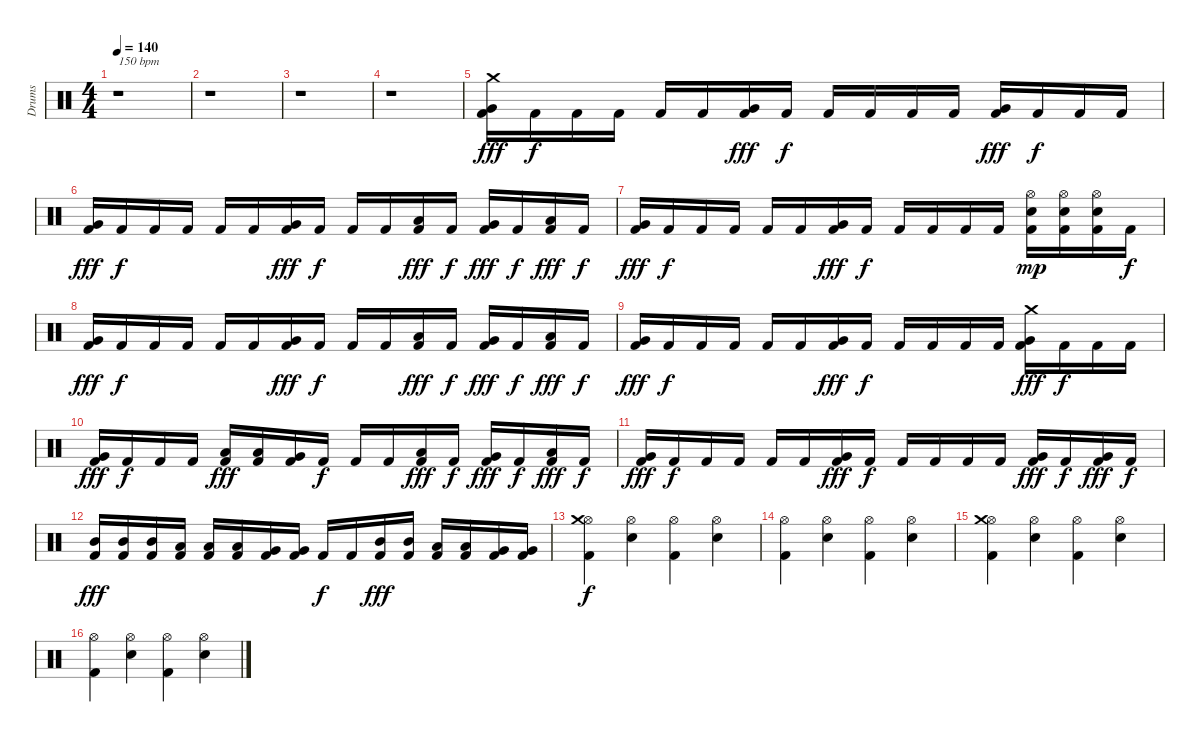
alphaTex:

\track ("Drums" "Drums") {instrument percussion}
\staff {score}
\articulation defaults
\ts (4 4)
\tempo 140
\tempo 150
\tempo 140
\clef neutral
\ks c
r.1{txt "150 bpm" dy fff} |
r.1 |
r.1 |
r.1 |
("Kick (hit) 2" "Very Low Tom (hit)" "Crash medium (hit)").16 "Kick (hit) 2".16{dy f} "Kick (hit) 2".16 "Kick (hit) 2".16 "Kick (hit) 2".16 "Kick (hit) 2".16 ("Kick (hit) 2" "Very Low Tom (hit)").16{dy fff} "Kick (hit) 2".16{dy f} "Kick (hit) 2".16 "Kick (hit) 2".16 "Kick (hit) 2".16 "Kick (hit) 2".16 ("Kick (hit) 2" "Very Low Tom (hit)").16{dy fff} "Kick (hit) 2".16{dy f} "Kick (hit) 2".16 "Kick (hit) 2".16 |
("Kick (hit) 2" "Very Low Tom (hit)").16{dy fff} "Kick (hit) 2".16{dy f} "Kick (hit) 2".16 "Kick (hit) 2".16 "Kick (hit) 2".16 "Kick (hit) 2".16 ("Kick (hit) 2" "Very Low Tom (hit)").16{dy fff} "Kick (hit) 2".16{dy f} "Kick (hit) 2".16 "Kick (hit) 2".16 ("Kick (hit) 2" "Low Tom (hit)").16{dy fff} "Kick (hit) 2".16{dy f} ("Kick (hit) 2" "Very Low Tom (hit)").16{dy fff} "Kick (hit) 2".16{dy f} ("Kick (hit) 2" "Low Floor Tom (hit)").16{dy fff} "Kick (hit) 2".16{dy f} |
("Kick (hit) 2" "Very Low Tom (hit)").16{dy fff} "Kick (hit) 2".16{dy f} "Kick (hit) 2".16 "Kick (hit) 2".16 "Kick (hit) 2".16 "Kick (hit) 2".16 ("Kick (hit) 2" "Very Low Tom (hit)").16{dy fff} "Kick (hit) 2".16{dy f} "Kick (hit) 2".16 "Kick (hit) 2".16 "Kick (hit) 2".16 "Kick (hit) 2".16 ("Kick (hit) 2" "Snare (hit) 2" "Hi-Hat (open)").16{dy mp} ("Kick (hit) 2" "Snare (hit) 2" "Hi-Hat (open)").16 ("Kick (hit) 2" "Snare (hit) 2" "Hi-Hat (open)").16 "Kick (hit) 2".16{dy f} |
("Kick (hit) 2" "Very Low Tom (hit)").16{dy fff} "Kick (hit) 2".16{dy f} "Kick (hit) 2".16 "Kick (hit) 2".16 "Kick (hit) 2".16 "Kick (hit) 2".16 ("Kick (hit) 2" "Very Low Tom (hit)").16{dy fff} "Kick (hit) 2".16{dy f} "Kick (hit) 2".16 "Kick (hit) 2".16 ("Kick (hit) 2" "Low Tom (hit)").16{dy fff} "Kick (hit) 2".16{dy f} ("Kick (hit) 2" "Very Low Tom (hit)").16{dy fff} "Kick (hit) 2".16{dy f} ("Kick (hit) 2" "Low Floor Tom (hit)").16{dy fff} "Kick (hit) 2".16{dy f} |
("Kick (hit) 2" "Very Low Tom (hit)").16{dy fff} "Kick (hit) 2".16{dy f} "Kick (hit) 2".16 "Kick (hit) 2".16 "Kick (hit) 2".16 "Kick (hit) 2".16 ("Kick (hit) 2" "Very Low Tom (hit)").16{dy fff} "Kick (hit) 2".16{dy f} "Kick (hit) 2".16 "Kick (hit) 2".16 "Kick (hit) 2".16 "Kick (hit) 2".16 ("Kick (hit) 2" "Very Low Tom (hit)" "Crash medium (hit)").16{dy fff} "Kick (hit) 2".16{dy f} "Kick (hit) 2".16 "Kick (hit) 2".16 |
("Kick (hit) 2" "Very Low Tom (hit)").16{dy fff} "Kick (hit) 2".16{dy f} "Kick (hit) 2".16 "Kick (hit) 2".16 ("Kick (hit) 2" "Low Tom (hit)").16{dy fff} ("Kick (hit) 2" "Low Tom (hit)").16 ("Kick (hit) 2" "Very Low Tom (hit)").16 "Kick (hit) 2".16{dy f} "Kick (hit) 2".16 "Kick (hit) 2".16 ("Kick (hit) 2" "Low Tom (hit)").16{dy fff} "Kick (hit) 2".16{dy f} ("Kick (hit) 2" "Very Low Tom (hit)").16{dy fff} "Kick (hit) 2".16{dy f} ("Kick (hit) 2" "Low Floor Tom (hit)").16{dy fff} "Kick (hit) 2".16{dy f} |
("Kick (hit) 2" "Very Low Tom (hit)").16{dy fff} "Kick (hit) 2".16{dy f} "Kick (hit) 2".16 "Kick (hit) 2".16 "Kick (hit) 2".16 "Kick (hit) 2".16 ("Kick (hit) 2" "Very Low Tom (hit)").16{dy fff} "Kick (hit) 2".16{dy f} "Kick (hit) 2".16 "Kick (hit) 2".16 "Kick (hit) 2".16 "Kick (hit) 2".16 ("Kick (hit) 2" "Very Low Tom (hit)").16{dy fff} "Kick (hit) 2".16{dy f} ("Kick (hit) 2" "Very Low Tom (hit)").16{dy fff} "Kick (hit) 2".16{dy f} |
("Kick (hit) 2" "Mid Tom (hit)").16{dy fff} ("Kick (hit) 2" "Mid Tom (hit)").16 ("Kick (hit) 2" "Mid Tom (hit)").16 ("Kick (hit) 2" "Low Tom (hit)").16 ("Kick (hit) 2" "Low Tom (hit)").16 ("Kick (hit) 2" "Low Tom (hit)").16 ("Kick (hit) 2" "Very Low Tom (hit)").16 ("Kick (hit) 2" "Very Low Tom (hit)").16 "Kick (hit) 2".16{dy f} "Kick (hit) 2".16 ("Kick (hit) 2" "Mid Tom (hit)").16{dy fff} ("Kick (hit) 2" "Mid Tom (hit)").16 ("Kick (hit) 2" "Low Tom (hit)").16 ("Kick (hit) 2" "Low Tom (hit)").16 ("Kick (hit) 2" "Very Low Tom (hit)").16 ("Kick (hit) 2" "Very Low Tom (hit)").16 |
("Kick (hit) 2" "Hi-Hat (open)" "Crash medium (hit)").4{dy f} ("Snare (hit) 2" "Hi-Hat (open)").4 ("Kick (hit) 2" "Hi-Hat (open)").4 ("Snare (hit) 2" "Hi-Hat (open)").4 |
("Kick (hit) 2" "Hi-Hat (open)").4 ("Snare (hit) 2" "Hi-Hat (open)").4 ("Kick (hit) 2" "Hi-Hat (open)").4 ("Snare (hit) 2" "Hi-Hat (open)").4 |
("Kick (hit) 2" "Hi-Hat (open)" "Crash medium (hit)").4 ("Snare (hit) 2" "Hi-Hat (open)").4 ("Kick (hit) 2" "Hi-Hat (open)").4 ("Snare (hit) 2" "Hi-Hat (open)").4 |
("Kick (hit) 2" "Hi-Hat (open)").4 ("Snare (hit) 2" "Hi-Hat (open)").4 ("Kick (hit) 2" "Hi-Hat (open)").4 ("Snare (hit) 2" "Hi-Hat (open)").4
